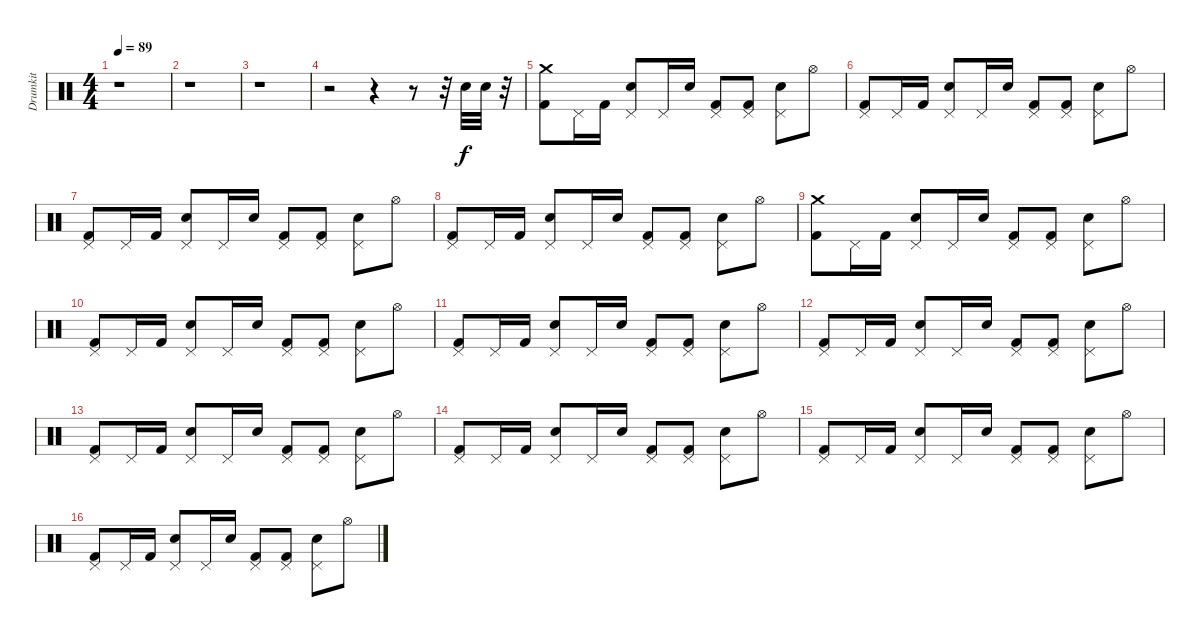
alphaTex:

\track ("Drumkit" "Drumkit") {instrument percussion}
\staff {score}
\articulation defaults
\ts (4 4)
\tempo 89
\clef neutral
\ks c
r.1{dy f} |
r.1 |
r.1 |
r.2 r.4 r.8 r.32 "Snare (hit) 2".32 "Snare (hit) 2".32 r.32 |
("Crash medium (hit)" "Kick (hit) 2").8 "Pedal Hi-Hat (hit)".16 "Kick (hit) 2".16 ("Snare (hit) 2" "Pedal Hi-Hat (hit)").8 "Pedal Hi-Hat (hit)".16 "Snare (hit) 2".16 ("Pedal Hi-Hat (hit)" "Kick (hit) 2").8 ("Pedal Hi-Hat (hit)" "Kick (hit) 2").8 ("Pedal Hi-Hat (hit)" "Snare (hit) 2").8 "Hi-Hat (open)".8 |
("Pedal Hi-Hat (hit)" "Kick (hit) 2").8 "Pedal Hi-Hat (hit)".16 "Kick (hit) 2".16 ("Pedal Hi-Hat (hit)" "Snare (hit) 2").8 "Pedal Hi-Hat (hit)".16 "Snare (hit) 2".16 ("Pedal Hi-Hat (hit)" "Kick (hit) 2").8 ("Pedal Hi-Hat (hit)" "Kick (hit) 2").8 ("Pedal Hi-Hat (hit)" "Snare (hit) 2").8 "Hi-Hat (open)".8 |
("Pedal Hi-Hat (hit)" "Kick (hit) 2").8 "Pedal Hi-Hat (hit)".16 "Kick (hit) 2".16 ("Pedal Hi-Hat (hit)" "Snare (hit) 2").8 "Pedal Hi-Hat (hit)".16 "Snare (hit) 2".16 ("Pedal Hi-Hat (hit)" "Kick (hit) 2").8 ("Pedal Hi-Hat (hit)" "Kick (hit) 2").8 ("Pedal Hi-Hat (hit)" "Snare (hit) 2").8 "Hi-Hat (open)".8 |
("Pedal Hi-Hat (hit)" "Kick (hit) 2").8 "Pedal Hi-Hat (hit)".16 "Kick (hit) 2".16 ("Pedal Hi-Hat (hit)" "Snare (hit) 2").8 "Pedal Hi-Hat (hit)".16 "Snare (hit) 2".16 ("Pedal Hi-Hat (hit)" "Kick (hit) 2").8 ("Pedal Hi-Hat (hit)" "Kick (hit) 2").8 ("Pedal Hi-Hat (hit)" "Snare (hit) 2").8 "Hi-Hat (open)".8 |
("Crash medium (hit)" "Kick (hit) 2").8 "Pedal Hi-Hat (hit)".16 "Kick (hit) 2".16 ("Pedal Hi-Hat (hit)" "Snare (hit) 2").8 "Pedal Hi-Hat (hit)".16 "Snare (hit) 2".16 ("Pedal Hi-Hat (hit)" "Kick (hit) 2").8 ("Pedal Hi-Hat (hit)" "Kick (hit) 2").8 ("Pedal Hi-Hat (hit)" "Snare (hit) 2").8 "Hi-Hat (open)".8 |
("Pedal Hi-Hat (hit)" "Kick (hit) 2").8 "Pedal Hi-Hat (hit)".16 "Kick (hit) 2".16 ("Pedal Hi-Hat (hit)" "Snare (hit) 2").8 "Pedal Hi-Hat (hit)".16 "Snare (hit) 2".16 ("Pedal Hi-Hat (hit)" "Kick (hit) 2").8 ("Pedal Hi-Hat (hit)" "Kick (hit) 2").8 ("Pedal Hi-Hat (hit)" "Snare (hit) 2").8 "Hi-Hat (open)".8 |
("Pedal Hi-Hat (hit)" "Kick (hit) 2").8 "Pedal Hi-Hat (hit)".16 "Kick (hit) 2".16 ("Pedal Hi-Hat (hit)" "Snare (hit) 2").8 "Pedal Hi-Hat (hit)".16 "Snare (hit) 2".16 ("Pedal Hi-Hat (hit)" "Kick (hit) 2").8 ("Pedal Hi-Hat (hit)" "Kick (hit) 2").8 ("Pedal Hi-Hat (hit)" "Snare (hit) 2").8 "Hi-Hat (open)".8 |
("Pedal Hi-Hat (hit)" "Kick (hit) 2").8 "Pedal Hi-Hat (hit)".16 "Kick (hit) 2".16 ("Pedal Hi-Hat (hit)" "Snare (hit) 2").8 "Pedal Hi-Hat (hit)".16 "Snare (hit) 2".16 ("Pedal Hi-Hat (hit)" "Kick (hit) 2").8 ("Pedal Hi-Hat (hit)" "Kick (hit) 2").8 ("Pedal Hi-Hat (hit)" "Snare (hit) 2").8 "Hi-Hat (open)".8 |
("Pedal Hi-Hat (hit)" "Kick (hit) 2").8 "Pedal Hi-Hat (hit)".16 "Kick (hit) 2".16 ("Pedal Hi-Hat (hit)" "Snare (hit) 2").8 "Pedal Hi-Hat (hit)".16 "Snare (hit) 2".16 ("Pedal Hi-Hat (hit)" "Kick (hit) 2").8 ("Pedal Hi-Hat (hit)" "Kick (hit) 2").8 ("Pedal Hi-Hat (hit)" "Snare (hit) 2").8 "Hi-Hat (open)".8 |
("Pedal Hi-Hat (hit)" "Kick (hit) 2").8 "Pedal Hi-Hat (hit)".16 "Kick (hit) 2".16 ("Pedal Hi-Hat (hit)" "Snare (hit) 2").8 "Pedal Hi-Hat (hit)".16 "Snare (hit) 2".16 ("Pedal Hi-Hat (hit)" "Kick (hit) 2").8 ("Pedal Hi-Hat (hit)" "Kick (hit) 2").8 ("Pedal Hi-Hat (hit)" "Snare (hit) 2").8 "Hi-Hat (open)".8 |
("Pedal Hi-Hat (hit)" "Kick (hit) 2").8 "Pedal Hi-Hat (hit)".16 "Kick (hit) 2".16 ("Pedal Hi-Hat (hit)" "Snare (hit) 2").8 "Pedal Hi-Hat (hit)".16 "Snare (hit) 2".16 ("Pedal Hi-Hat (hit)" "Kick (hit) 2").8 ("Pedal Hi-Hat (hit)" "Kick (hit) 2").8 ("Pedal Hi-Hat (hit)" "Snare (hit) 2").8 "Hi-Hat (open)".8 |
("Pedal Hi-Hat (hit)" "Kick (hit) 2").8 "Pedal Hi-Hat (hit)".16 "Kick (hit) 2".16 ("Pedal Hi-Hat (hit)" "Snare (hit) 2").8 "Pedal Hi-Hat (hit)".16 "Snare (hit) 2".16 ("Pedal Hi-Hat (hit)" "Kick (hit) 2").8 ("Pedal Hi-Hat (hit)" "Kick (hit) 2").8 ("Pedal Hi-Hat (hit)" "Snare (hit) 2").8 "Hi-Hat (open)".8
